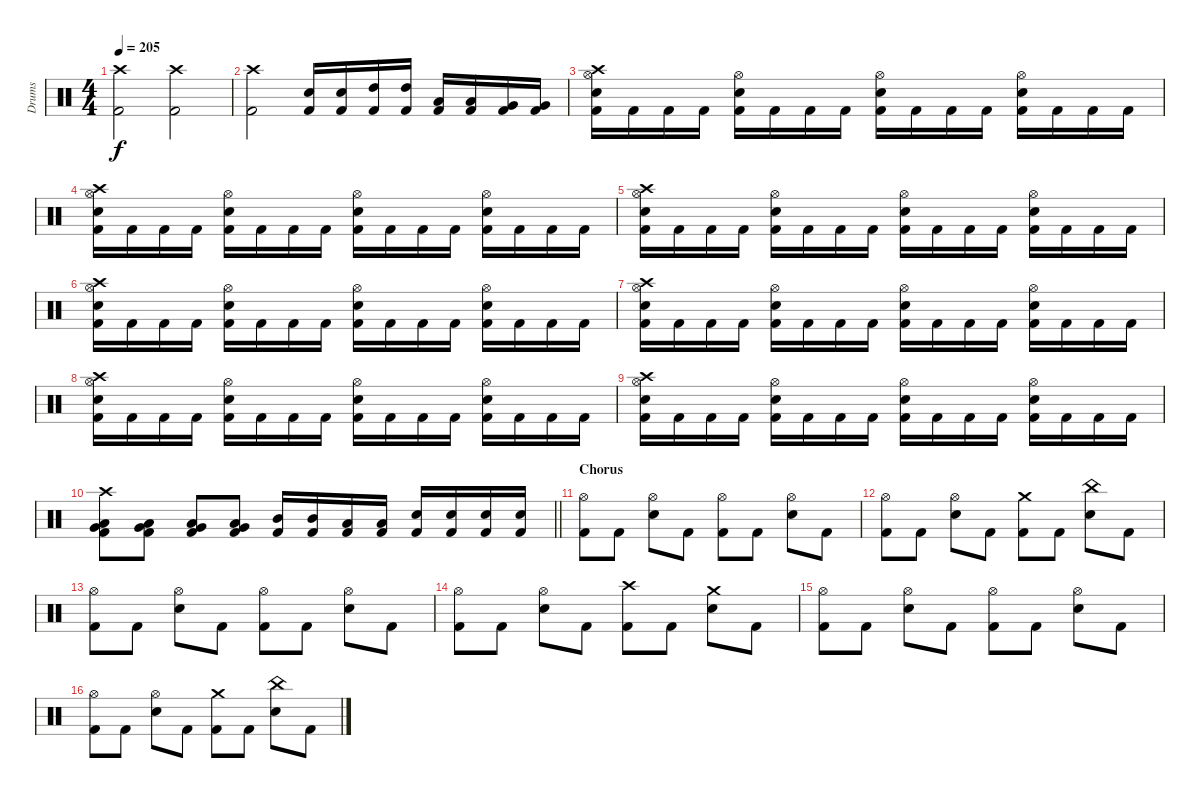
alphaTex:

\track ("Drums" "Drums") {instrument percussion}
\staff {score}
\articulation defaults
\ts (4 4)
\tempo 205
\clef neutral
\ks c
("Crash high (hit)" "Kick (hit) 2").2{dy f} ("Crash high (hit)" "Kick (hit) 2").2 |
("Crash high (hit)" "Kick (hit) 2").2 ("Snare (hit) 2" "Kick (hit) 2").16 ("Snare (hit) 2" "Kick (hit) 2").16 ("High Tom (hit)" "Kick (hit) 2").16 ("High Tom (hit)" "Kick (hit) 2").16 ("Low Tom (hit)" "Kick (hit) 2").16 ("Low Tom (hit)" "Kick (hit) 2").16 ("Very Low Tom (hit)" "Kick (hit) 2").16 ("Very Low Tom (hit)" "Kick (hit) 2").16 |
("Crash high (hit)" "Hi-Hat (open)" "Snare (hit) 2" "Kick (hit) 2").16 "Kick (hit) 2".16 "Kick (hit) 2".16 "Kick (hit) 2".16 ("Hi-Hat (open)" "Snare (hit) 2" "Kick (hit) 2").16 "Kick (hit) 2".16 "Kick (hit) 2".16 "Kick (hit) 2".16 ("Hi-Hat (open)" "Snare (hit) 2" "Kick (hit) 2").16 "Kick (hit) 2".16 "Kick (hit) 2".16 "Kick (hit) 2".16 ("Hi-Hat (open)" "Snare (hit) 2" "Kick (hit) 2").16 "Kick (hit) 2".16 "Kick (hit) 2".16 "Kick (hit) 2".16 |
("Crash high (hit)" "Hi-Hat (open)" "Snare (hit) 2" "Kick (hit) 2").16 "Kick (hit) 2".16 "Kick (hit) 2".16 "Kick (hit) 2".16 ("Hi-Hat (open)" "Snare (hit) 2" "Kick (hit) 2").16 "Kick (hit) 2".16 "Kick (hit) 2".16 "Kick (hit) 2".16 ("Hi-Hat (open)" "Snare (hit) 2" "Kick (hit) 2").16 "Kick (hit) 2".16 "Kick (hit) 2".16 "Kick (hit) 2".16 ("Hi-Hat (open)" "Snare (hit) 2" "Kick (hit) 2").16 "Kick (hit) 2".16 "Kick (hit) 2".16 "Kick (hit) 2".16 |
("Crash high (hit)" "Hi-Hat (open)" "Snare (hit) 2" "Kick (hit) 2").16 "Kick (hit) 2".16 "Kick (hit) 2".16 "Kick (hit) 2".16 ("Hi-Hat (open)" "Snare (hit) 2" "Kick (hit) 2").16 "Kick (hit) 2".16 "Kick (hit) 2".16 "Kick (hit) 2".16 ("Hi-Hat (open)" "Snare (hit) 2" "Kick (hit) 2").16 "Kick (hit) 2".16 "Kick (hit) 2".16 "Kick (hit) 2".16 ("Hi-Hat (open)" "Snare (hit) 2" "Kick (hit) 2").16 "Kick (hit) 2".16 "Kick (hit) 2".16 "Kick (hit) 2".16 |
("Crash high (hit)" "Hi-Hat (open)" "Snare (hit) 2" "Kick (hit) 2").16 "Kick (hit) 2".16 "Kick (hit) 2".16 "Kick (hit) 2".16 ("Hi-Hat (open)" "Snare (hit) 2" "Kick (hit) 2").16 "Kick (hit) 2".16 "Kick (hit) 2".16 "Kick (hit) 2".16 ("Hi-Hat (open)" "Snare (hit) 2" "Kick (hit) 2").16 "Kick (hit) 2".16 "Kick (hit) 2".16 "Kick (hit) 2".16 ("Hi-Hat (open)" "Snare (hit) 2" "Kick (hit) 2").16 "Kick (hit) 2".16 "Kick (hit) 2".16 "Kick (hit) 2".16 |
("Crash high (hit)" "Hi-Hat (open)" "Snare (hit) 2" "Kick (hit) 2").16 "Kick (hit) 2".16 "Kick (hit) 2".16 "Kick (hit) 2".16 ("Hi-Hat (open)" "Snare (hit) 2" "Kick (hit) 2").16 "Kick (hit) 2".16 "Kick (hit) 2".16 "Kick (hit) 2".16 ("Hi-Hat (open)" "Snare (hit) 2" "Kick (hit) 2").16 "Kick (hit) 2".16 "Kick (hit) 2".16 "Kick (hit) 2".16 ("Hi-Hat (open)" "Snare (hit) 2" "Kick (hit) 2").16 "Kick (hit) 2".16 "Kick (hit) 2".16 "Kick (hit) 2".16 |
("Crash high (hit)" "Hi-Hat (open)" "Snare (hit) 2" "Kick (hit) 2").16 "Kick (hit) 2".16 "Kick (hit) 2".16 "Kick (hit) 2".16 ("Hi-Hat (open)" "Snare (hit) 2" "Kick (hit) 2").16 "Kick (hit) 2".16 "Kick (hit) 2".16 "Kick (hit) 2".16 ("Hi-Hat (open)" "Snare (hit) 2" "Kick (hit) 2").16 "Kick (hit) 2".16 "Kick (hit) 2".16 "Kick (hit) 2".16 ("Hi-Hat (open)" "Snare (hit) 2" "Kick (hit) 2").16 "Kick (hit) 2".16 "Kick (hit) 2".16 "Kick (hit) 2".16 |
("Crash high (hit)" "Hi-Hat (open)" "Snare (hit) 2" "Kick (hit) 2").16 "Kick (hit) 2".16 "Kick (hit) 2".16 "Kick (hit) 2".16 ("Hi-Hat (open)" "Snare (hit) 2" "Kick (hit) 2").16 "Kick (hit) 2".16 "Kick (hit) 2".16 "Kick (hit) 2".16 ("Hi-Hat (open)" "Snare (hit) 2" "Kick (hit) 2").16 "Kick (hit) 2".16 "Kick (hit) 2".16 "Kick (hit) 2".16 ("Hi-Hat (open)" "Snare (hit) 2" "Kick (hit) 2").16 "Kick (hit) 2".16 "Kick (hit) 2".16 "Kick (hit) 2".16 |
\barLineRight lightlight
("Crash high (hit)" "Low Tom (hit)" "Very Low Tom (hit)" "Kick (hit) 2").8 ("Low Tom (hit)" "Very Low Tom (hit)" "Kick (hit) 2").8 ("Low Tom (hit)" "Very Low Tom (hit)" "Kick (hit) 2").8 ("Low Tom (hit)" "Very Low Tom (hit)" "Kick (hit) 2").8 ("Mid Tom (hit)" "Kick (hit) 2").16 ("Mid Tom (hit)" "Kick (hit) 2").16 ("Low Tom (hit)" "Kick (hit) 2").16 ("Low Tom (hit)" "Kick (hit) 2").16 ("Snare (hit) 2" "Kick (hit) 2").16 ("Snare (hit) 2" "Kick (hit) 2").16 ("Snare (hit) 2" "Kick (hit) 2").16 ("Snare (hit) 2" "Kick (hit) 2").16 |
\section ("" "Chorus")
("Kick (hit) 2" "Hi-Hat (open)").8 "Kick (hit) 2".8 ("Snare (hit) 2" "Hi-Hat (open)").8 "Kick (hit) 2".8 ("Kick (hit) 2" "Hi-Hat (open)").8 "Kick (hit) 2".8 ("Snare (hit) 2" "Hi-Hat (open)").8 "Kick (hit) 2".8 |
("Kick (hit) 2" "Hi-Hat (open)").8 "Kick (hit) 2".8 ("Snare (hit) 2" "Hi-Hat (open)").8 "Kick (hit) 2".8 ("Kick (hit) 2" "Crash medium (hit)").8 "Kick (hit) 2".8 ("Snare (hit) 2" "China (hit)").8 "Kick (hit) 2".8 |
("Kick (hit) 2" "Hi-Hat (open)").8 "Kick (hit) 2".8 ("Snare (hit) 2" "Hi-Hat (open)").8 "Kick (hit) 2".8 ("Kick (hit) 2" "Hi-Hat (open)").8 "Kick (hit) 2".8 ("Snare (hit) 2" "Hi-Hat (open)").8 "Kick (hit) 2".8 |
("Kick (hit) 2" "Hi-Hat (open)").8 "Kick (hit) 2".8 ("Snare (hit) 2" "Hi-Hat (open)").8 "Kick (hit) 2".8 ("Kick (hit) 2" "Crash high (hit)").8 "Kick (hit) 2".8 ("Snare (hit) 2" "Crash medium (hit)").8 "Kick (hit) 2".8 |
("Kick (hit) 2" "Hi-Hat (open)").8 "Kick (hit) 2".8 ("Snare (hit) 2" "Hi-Hat (open)").8 "Kick (hit) 2".8 ("Kick (hit) 2" "Hi-Hat (open)").8 "Kick (hit) 2".8 ("Snare (hit) 2" "Hi-Hat (open)").8 "Kick (hit) 2".8 |
("Kick (hit) 2" "Hi-Hat (open)").8 "Kick (hit) 2".8 ("Snare (hit) 2" "Hi-Hat (open)").8 "Kick (hit) 2".8 ("Kick (hit) 2" "Crash medium (hit)").8 "Kick (hit) 2".8 ("Snare (hit) 2" "China (hit)").8 "Kick (hit) 2".8
